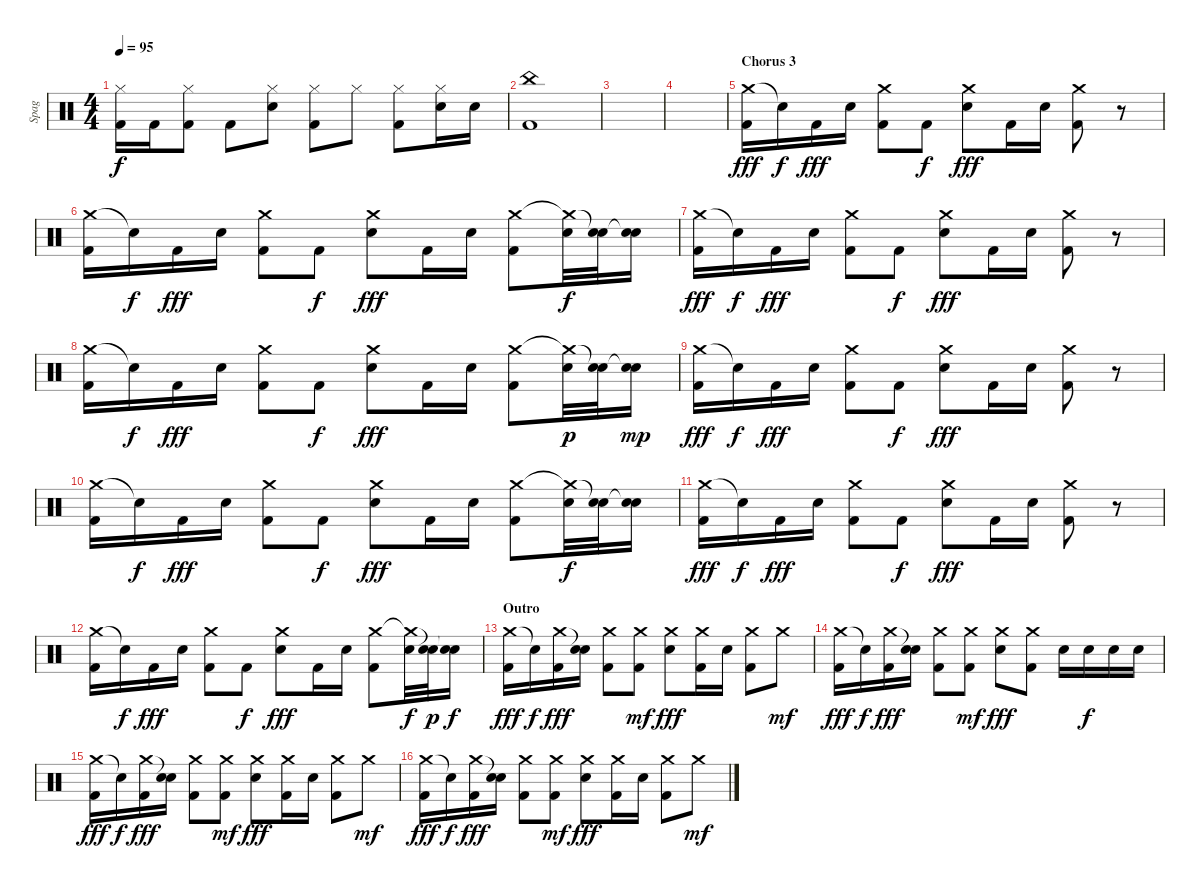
\track ("Spag" "Spag") {instrument percussion}
\staff {score}
\articulation defaults
\ts (4 4)
\tempo 95
\clef neutral
\ks c
("Hi-Hat (closed)" "Kick (hit) 2").16{dy f} "Kick (hit) 2".16 ("Hi-Hat (closed)" "Kick (hit) 2").8 "Kick (hit) 2".8 ("Hi-Hat (closed)" "Electric Snare (hit)").8 ("Hi-Hat (closed)" "Kick (hit) 2").8 "Hi-Hat (closed)".8 ("Hi-Hat (closed)" "Kick (hit) 2").8 ("Hi-Hat (closed)" "Electric Snare (hit)").16 "Electric Snare (hit)".16 |
("China (hit)" "Kick (hit) 2").1 |
|
|
\section ("" "Chorus 3")
("Crash medium (hit)" "Kick (hit) 2").16{dy fff} "Snare (hit)"{t}.16{dy f} "Kick (hit) 2".16{dy fff} "Electric Snare (hit)".16 ("Crash medium (hit)" "Kick (hit) 2").8 "Kick (hit) 2".8{dy f} ("Crash medium (hit)" "Electric Snare (hit)").8{dy fff} "Kick (hit) 2".16 "Electric Snare (hit)".16 ("Crash medium (hit)" "Kick (hit) 2").8 r.8 |
("Crash medium (hit)" "Kick (hit) 2").16 "Snare (hit)"{t}.16{dy f} "Kick (hit) 2".16{dy fff} "Electric Snare (hit)".16 ("Crash medium (hit)" "Kick (hit) 2").8 "Kick (hit) 2".8{dy f} ("Crash medium (hit)" "Electric Snare (hit)").8{dy fff} "Kick (hit) 2".16 "Electric Snare (hit)".16 ("Crash medium (hit)" "Kick (hit) 2").8 ("Crash medium (hit)"{t} "Electric Snare (hit)").32{dy f} ("Snare (hit)"{t} "Electric Snare (hit)").32 ("Snare (hit)"{t} "Electric Snare (hit)").16 |
("Crash medium (hit)" "Kick (hit) 2").16{dy fff} "Snare (hit)"{t}.16{dy f} "Kick (hit) 2".16{dy fff} "Electric Snare (hit)".16 ("Crash medium (hit)" "Kick (hit) 2").8 "Kick (hit) 2".8{dy f} ("Crash medium (hit)" "Electric Snare (hit)").8{dy fff} "Kick (hit) 2".16 "Electric Snare (hit)".16 ("Crash medium (hit)" "Kick (hit) 2").8 r.8 |
("Crash medium (hit)" "Kick (hit) 2").16 "Snare (hit)"{t}.16{dy f} "Kick (hit) 2".16{dy fff} "Electric Snare (hit)".16 ("Crash medium (hit)" "Kick (hit) 2").8 "Kick (hit) 2".8{dy f} ("Crash medium (hit)" "Electric Snare (hit)").8{dy fff} "Kick (hit) 2".16 "Electric Snare (hit)".16 ("Crash medium (hit)" "Kick (hit) 2").8 ("Crash medium (hit)"{t} "Electric Snare (hit)").32{dy p} ("Snare (hit)"{t} "Electric Snare (hit)").32 ("Snare (hit)"{t} "Electric Snare (hit)").16{dy mp} |
("Crash medium (hit)" "Kick (hit) 2").16{dy fff} "Snare (hit)"{t}.16{dy f} "Kick (hit) 2".16{dy fff} "Electric Snare (hit)".16 ("Crash medium (hit)" "Kick (hit) 2").8 "Kick (hit) 2".8{dy f} ("Crash medium (hit)" "Electric Snare (hit)").8{dy fff} "Kick (hit) 2".16 "Electric Snare (hit)".16 ("Crash medium (hit)" "Kick (hit) 2").8 r.8 |
("Crash medium (hit)" "Kick (hit) 2").16 "Snare (hit)"{t}.16{dy f} "Kick (hit) 2".16{dy fff} "Electric Snare (hit)".16 ("Crash medium (hit)" "Kick (hit) 2").8 "Kick (hit) 2".8{dy f} ("Crash medium (hit)" "Electric Snare (hit)").8{dy fff} "Kick (hit) 2".16 "Electric Snare (hit)".16 ("Crash medium (hit)" "Kick (hit) 2").8 ("Crash medium (hit)"{t} "Electric Snare (hit)").32{dy f} ("Snare (hit)"{t} "Electric Snare (hit)").32 ("Snare (hit)"{t} "Electric Snare (hit)").16 |
("Crash medium (hit)" "Kick (hit) 2").16{dy fff} "Snare (hit)"{t}.16{dy f} "Kick (hit) 2".16{dy fff} "Electric Snare (hit)".16 ("Crash medium (hit)" "Kick (hit) 2").8 "Kick (hit) 2".8{dy f} ("Crash medium (hit)" "Electric Snare (hit)").8{dy fff} "Kick (hit) 2".16 "Electric Snare (hit)".16 ("Crash medium (hit)" "Kick (hit) 2").8 r.8 |
("Crash medium (hit)" "Kick (hit) 2").16 "Snare (hit)"{t}.16{dy f} "Kick (hit) 2".16{dy fff} "Electric Snare (hit)".16 ("Crash medium (hit)" "Kick (hit) 2").8 "Kick (hit) 2".8{dy f} ("Crash medium (hit)" "Electric Snare (hit)").8{dy fff} "Kick (hit) 2".16 "Electric Snare (hit)".16 ("Crash medium (hit)" "Kick (hit) 2").8 ("Crash medium (hit)"{t} "Electric Snare (hit)").32{dy f} ("Snare (hit)"{t} "Electric Snare (hit)").32{dy p} ("Snare (hit)"{t} "Electric Snare (hit)").16{dy f} |
\section ("" "Outro")
("Crash medium (hit)" "Kick (hit) 2").16{dy fff} "Snare (hit)"{t}.16{dy f} ("Crash medium (hit)" "Kick (hit) 2").16{dy fff} ("Snare (hit)"{t} "Electric Snare (hit)").16 ("Crash medium (hit)" "Kick (hit) 2").8 ("Crash medium (hit)" "Kick (hit) 2").8{dy mf} ("Crash medium (hit)" "Electric Snare (hit)").8{dy fff} ("Crash medium (hit)" "Kick (hit) 2").16 "Electric Snare (hit)".16 ("Crash medium (hit)" "Kick (hit) 2").8 "Crash medium (hit)".8{dy mf} |
("Crash medium (hit)" "Kick (hit) 2").16{dy fff} "Snare (hit)"{t}.16{dy f} ("Crash medium (hit)" "Kick (hit) 2").16{dy fff} ("Snare (hit)"{t} "Electric Snare (hit)").16 ("Crash medium (hit)" "Kick (hit) 2").8 ("Crash medium (hit)" "Kick (hit) 2").8{dy mf} ("Crash medium (hit)" "Electric Snare (hit)").8{dy fff} ("Crash medium (hit)" "Kick (hit) 2").8 "Electric Snare (hit)".16 "Electric Snare (hit)".16{dy f} "Electric Snare (hit)".16 "Electric Snare (hit)".16 |
("Crash medium (hit)" "Kick (hit) 2").16{dy fff} "Snare (hit)"{t}.16{dy f} ("Crash medium (hit)" "Kick (hit) 2").16{dy fff} ("Snare (hit)"{t} "Electric Snare (hit)").16 ("Crash medium (hit)" "Kick (hit) 2").8 ("Crash medium (hit)" "Kick (hit) 2").8{dy mf} ("Crash medium (hit)" "Electric Snare (hit)").8{dy fff} ("Crash medium (hit)" "Kick (hit) 2").16 "Electric Snare (hit)".16 ("Crash medium (hit)" "Kick (hit) 2").8 "Crash medium (hit)".8{dy mf} |
("Crash medium (hit)" "Kick (hit) 2").16{dy fff} "Snare (hit)"{t}.16{dy f} ("Crash medium (hit)" "Kick (hit) 2").16{dy fff} ("Snare (hit)"{t} "Electric Snare (hit)").16 ("Crash medium (hit)" "Kick (hit) 2").8 ("Crash medium (hit)" "Kick (hit) 2").8{dy mf} ("Crash medium (hit)" "Electric Snare (hit)").8{dy fff} ("Crash medium (hit)" "Kick (hit) 2").16 "Electric Snare (hit)".16 ("Crash medium (hit)" "Kick (hit) 2").8 "Crash medium (hit)".8{dy mf}
